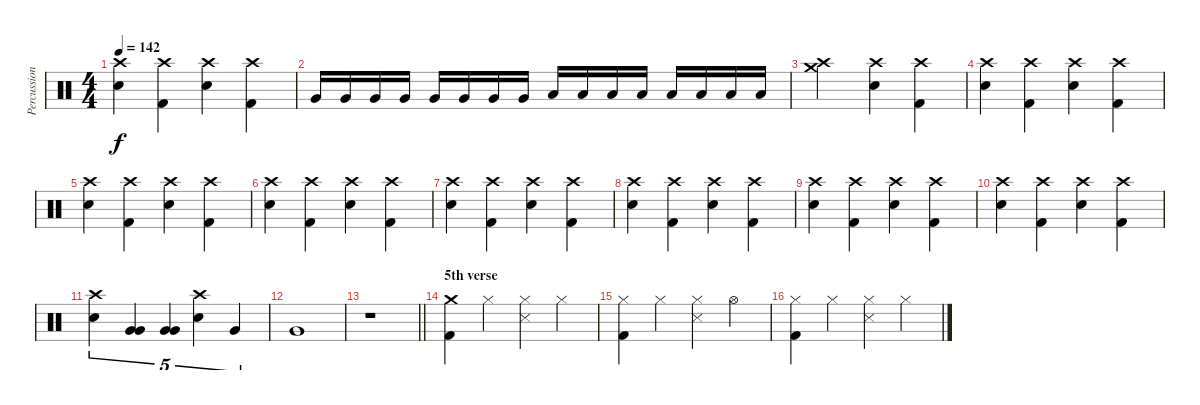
\track ("Percussions" "Percussion") {instrument percussion}
\staff {score}
\articulation defaults
\ts (4 4)
\tempo 142
\clef neutral
\ks c
("Crash high (hit)" "Electric Snare (hit)").4{dy f} ("Crash high (hit)" "Kick (hit) 2").4 ("Crash high (hit)" "Electric Snare (hit)").4 ("Crash high (hit)" "Kick (hit) 2").4 |
"Very Low Tom (hit)".16 "Very Low Tom (hit)".16 "Very Low Tom (hit)".16 "Very Low Tom (hit)".16 "Very Low Tom (hit)".16 "Very Low Tom (hit)".16 "Very Low Tom (hit)".16 "Very Low Tom (hit)".16 "Low Floor Tom (hit)".16 "Low Floor Tom (hit)".16 "Low Floor Tom (hit)".16 "Low Floor Tom (hit)".16 "Low Floor Tom (hit)".16 "Low Floor Tom (hit)".16 "Low Floor Tom (hit)".16 "Low Floor Tom (hit)".16 |
("Crash high (hit)" "Crash medium (hit)").2 ("Crash high (hit)" "Electric Snare (hit)").4 ("Crash high (hit)" "Kick (hit) 2").4 |
("Crash high (hit)" "Electric Snare (hit)").4 ("Crash high (hit)" "Kick (hit) 2").4 ("Crash high (hit)" "Electric Snare (hit)").4 ("Crash high (hit)" "Kick (hit) 2").4 |
("Crash high (hit)" "Electric Snare (hit)").4 ("Crash high (hit)" "Kick (hit) 2").4 ("Crash high (hit)" "Electric Snare (hit)").4 ("Crash high (hit)" "Kick (hit) 2").4 |
("Crash high (hit)" "Electric Snare (hit)").4 ("Crash high (hit)" "Kick (hit) 2").4 ("Crash high (hit)" "Electric Snare (hit)").4 ("Crash high (hit)" "Kick (hit) 2").4 |
("Crash high (hit)" "Electric Snare (hit)").4 ("Crash high (hit)" "Kick (hit) 2").4 ("Crash high (hit)" "Electric Snare (hit)").4 ("Crash high (hit)" "Kick (hit) 2").4 |
("Crash high (hit)" "Electric Snare (hit)").4 ("Crash high (hit)" "Kick (hit) 2").4 ("Crash high (hit)" "Electric Snare (hit)").4 ("Crash high (hit)" "Kick (hit) 2").4 |
("Crash high (hit)" "Electric Snare (hit)").4 ("Crash high (hit)" "Kick (hit) 2").4 ("Crash high (hit)" "Electric Snare (hit)").4 ("Crash high (hit)" "Kick (hit) 2").4 |
("Crash high (hit)" "Electric Snare (hit)").4 ("Crash high (hit)" "Kick (hit) 2").4 ("Crash high (hit)" "Electric Snare (hit)").4 ("Crash high (hit)" "Kick (hit) 2").4 |
("Crash high (hit)" "Electric Snare (hit)").4{tu (5 4)} ("Very Low Tom (hit)" "Very Low Tom (hit)").4{tu (5 4)} ("Very Low Tom (hit)" "Very Low Tom (hit)").4{tu (5 4)} ("Crash high (hit)" "Electric Snare (hit)").4{tu (5 4)} "Very Low Tom (hit)".4{tu (5 4)} |
"Very Low Tom (hit)".1 |
\barLineRight lightlight
r.1 |
\section ("" "5th verse")
("Crash medium (hit)" "Kick (hit) 2").4 "Hi-Hat (closed)".4 ("Hi-Hat (closed)" "Metronome (hit)").4 "Hi-Hat (closed)".4 |
("Hi-Hat (closed)" "Kick (hit) 2").4 "Hi-Hat (closed)".4 ("Hi-Hat (closed)" "Metronome (hit)").4 "Hi-Hat (open)".4 |
("Hi-Hat (closed)" "Kick (hit) 2").4 "Hi-Hat (closed)".4 ("Hi-Hat (closed)" "Metronome (hit)").4 "Hi-Hat (closed)".4
